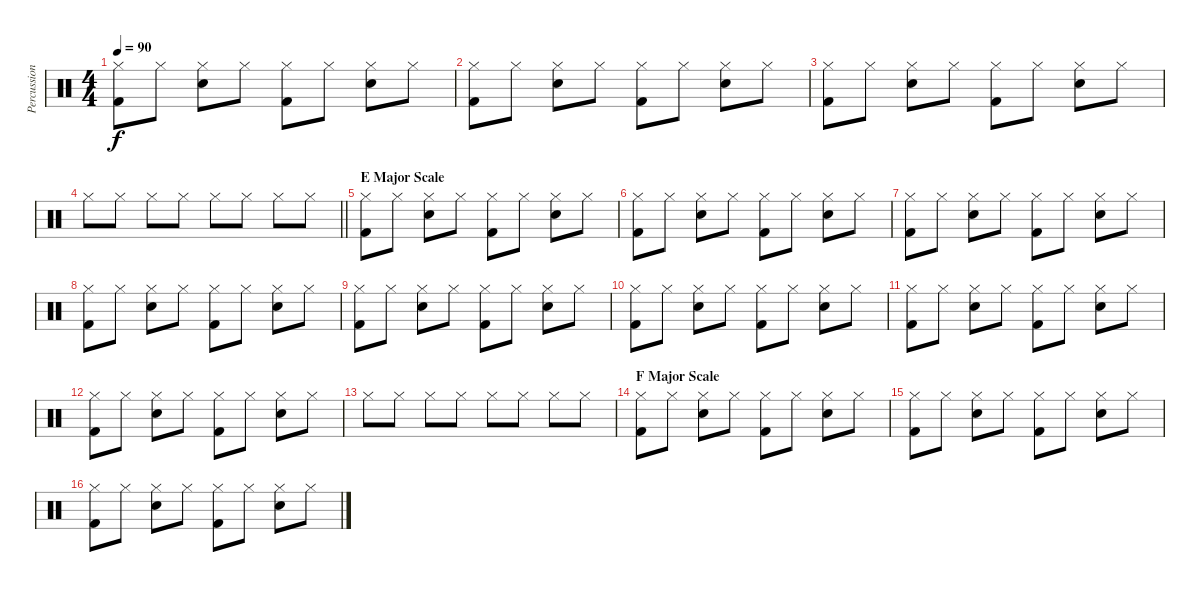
\track ("Percussion" "Percussion") {instrument percussion}
\staff {score}
\articulation defaults
\ts (4 4)
\tempo 90
\clef neutral
\ks c
("Kick (hit) 2" "Hi-Hat (closed)").8{dy f} "Hi-Hat (closed)".8 ("Snare (hit) 2" "Hi-Hat (closed)").8 "Hi-Hat (closed)".8 ("Kick (hit) 2" "Hi-Hat (closed)").8 "Hi-Hat (closed)".8 ("Snare (hit) 2" "Hi-Hat (closed)").8 "Hi-Hat (closed)".8 |
("Kick (hit) 2" "Hi-Hat (closed)").8 "Hi-Hat (closed)".8 ("Snare (hit) 2" "Hi-Hat (closed)").8 "Hi-Hat (closed)".8 ("Kick (hit) 2" "Hi-Hat (closed)").8 "Hi-Hat (closed)".8 ("Snare (hit) 2" "Hi-Hat (closed)").8 "Hi-Hat (closed)".8 |
("Kick (hit) 2" "Hi-Hat (closed)").8 "Hi-Hat (closed)".8 ("Snare (hit) 2" "Hi-Hat (closed)").8 "Hi-Hat (closed)".8 ("Kick (hit) 2" "Hi-Hat (closed)").8 "Hi-Hat (closed)".8 ("Snare (hit) 2" "Hi-Hat (closed)").8 "Hi-Hat (closed)".8 |
\barLineRight lightlight "Hi-Hat (closed)".8 "Hi-Hat (closed)".8 "Hi-Hat (closed)".8 "Hi-Hat (closed)".8 "Hi-Hat (closed)".8 "Hi-Hat (closed)".8 "Hi-Hat (closed)".8 "Hi-Hat (closed)".8
|
\section ("" "E Major Scale")
("Kick (hit) 2" "Hi-Hat (closed)").8 "Hi-Hat (closed)".8 ("Snare (hit) 2" "Hi-Hat (closed)").8 "Hi-Hat (closed)".8 ("Kick (hit) 2" "Hi-Hat (closed)").8 "Hi-Hat (closed)".8 ("Snare (hit) 2" "Hi-Hat (closed)").8 "Hi-Hat (closed)".8 |
("Kick (hit) 2" "Hi-Hat (closed)").8 "Hi-Hat (closed)".8 ("Snare (hit) 2" "Hi-Hat (closed)").8 "Hi-Hat (closed)".8 ("Kick (hit) 2" "Hi-Hat (closed)").8 "Hi-Hat (closed)".8 ("Snare (hit) 2" "Hi-Hat (closed)").8 "Hi-Hat (closed)".8 |
("Kick (hit) 2" "Hi-Hat (closed)").8 "Hi-Hat (closed)".8 ("Snare (hit) 2" "Hi-Hat (closed)").8 "Hi-Hat (closed)".8 ("Kick (hit) 2" "Hi-Hat (closed)").8 "Hi-Hat (closed)".8 ("Snare (hit) 2" "Hi-Hat (closed)").8 "Hi-Hat (closed)".8 |
("Kick (hit) 2" "Hi-Hat (closed)").8 "Hi-Hat (closed)".8 ("Snare (hit) 2" "Hi-Hat (closed)").8 "Hi-Hat (closed)".8 ("Kick (hit) 2" "Hi-Hat (closed)").8 "Hi-Hat (closed)".8 ("Snare (hit) 2" "Hi-Hat (closed)").8 "Hi-Hat (closed)".8 |
("Kick (hit) 2" "Hi-Hat (closed)").8 "Hi-Hat (closed)".8 ("Snare (hit) 2" "Hi-Hat (closed)").8 "Hi-Hat (closed)".8 ("Kick (hit) 2" "Hi-Hat (closed)").8 "Hi-Hat (closed)".8 ("Snare (hit) 2" "Hi-Hat (closed)").8 "Hi-Hat (closed)".8 |
("Kick (hit) 2" "Hi-Hat (closed)").8 "Hi-Hat (closed)".8 ("Snare (hit) 2" "Hi-Hat (closed)").8 "Hi-Hat (closed)".8 ("Kick (hit) 2" "Hi-Hat (closed)").8 "Hi-Hat (closed)".8 ("Snare (hit) 2" "Hi-Hat (closed)").8 "Hi-Hat (closed)".8 |
("Kick (hit) 2" "Hi-Hat (closed)").8 "Hi-Hat (closed)".8 ("Snare (hit) 2" "Hi-Hat (closed)").8 "Hi-Hat (closed)".8 ("Kick (hit) 2" "Hi-Hat (closed)").8 "Hi-Hat (closed)".8 ("Snare (hit) 2" "Hi-Hat (closed)").8 "Hi-Hat (closed)".8 |
("Kick (hit) 2" "Hi-Hat (closed)").8 "Hi-Hat (closed)".8 ("Snare (hit) 2" "Hi-Hat (closed)").8 "Hi-Hat (closed)".8 ("Kick (hit) 2" "Hi-Hat (closed)").8 "Hi-Hat (closed)".8 ("Snare (hit) 2" "Hi-Hat (closed)").8 "Hi-Hat (closed)".8 |
"Hi-Hat (closed)".8 "Hi-Hat (closed)".8 "Hi-Hat (closed)".8 "Hi-Hat (closed)".8 "Hi-Hat (closed)".8 "Hi-Hat (closed)".8 "Hi-Hat (closed)".8 "Hi-Hat (closed)".8 |
\section ("" "F Major Scale")
("Kick (hit) 2" "Hi-Hat (closed)").8 "Hi-Hat (closed)".8 ("Snare (hit) 2" "Hi-Hat (closed)").8 "Hi-Hat (closed)".8 ("Kick (hit) 2" "Hi-Hat (closed)").8 "Hi-Hat (closed)".8 ("Snare (hit) 2" "Hi-Hat (closed)").8 "Hi-Hat (closed)".8 |
("Kick (hit) 2" "Hi-Hat (closed)").8 "Hi-Hat (closed)".8 ("Snare (hit) 2" "Hi-Hat (closed)").8 "Hi-Hat (closed)".8 ("Kick (hit) 2" "Hi-Hat (closed)").8 "Hi-Hat (closed)".8 ("Snare (hit) 2" "Hi-Hat (closed)").8 "Hi-Hat (closed)".8 |
("Kick (hit) 2" "Hi-Hat (closed)").8 "Hi-Hat (closed)".8 ("Snare (hit) 2" "Hi-Hat (closed)").8 "Hi-Hat (closed)".8 ("Kick (hit) 2" "Hi-Hat (closed)").8 "Hi-Hat (closed)".8 ("Snare (hit) 2" "Hi-Hat (closed)").8 "Hi-Hat (closed)".8
